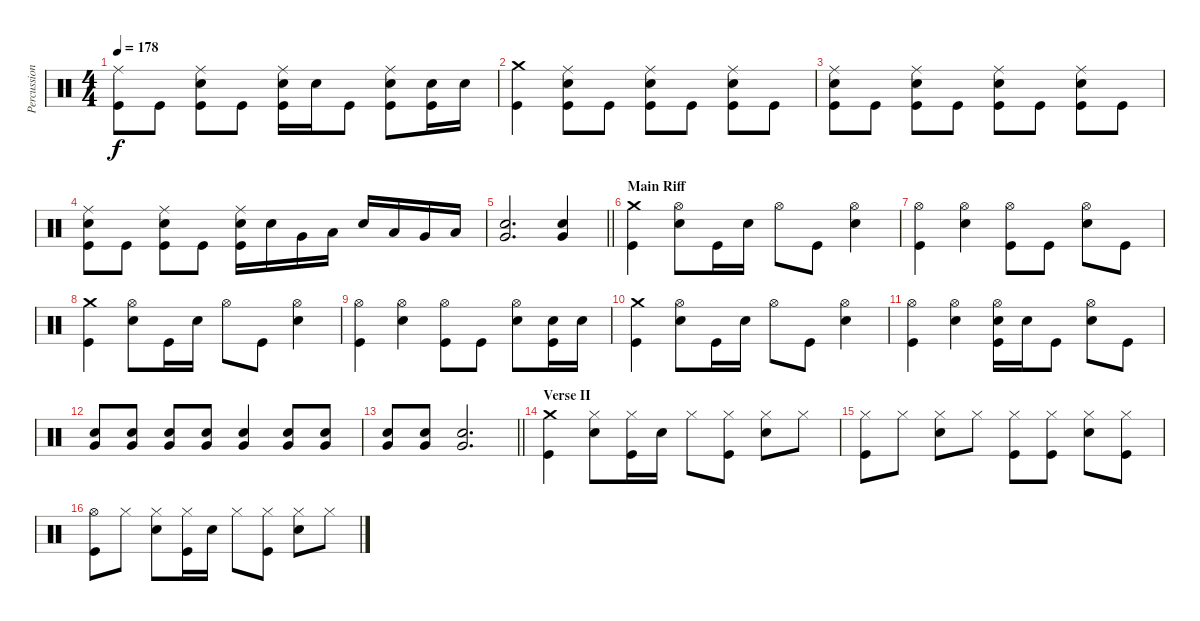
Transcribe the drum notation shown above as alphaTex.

\track ("Percussion" "Percussion") {instrument percussion}
\staff {score}
\articulation defaults
\ts (4 4)
\tempo 178
\clef neutral
\ks c
("Ride (middle)" "Kick (hit)").8{dy f} "Kick (hit)".8 ("Ride (middle)" "Electric Snare (hit)" "Kick (hit)").8 "Kick (hit)".8 ("Ride (middle)" "Electric Snare (hit)" "Kick (hit)").16 "Electric Snare (hit)".16 "Kick (hit)".8 ("Ride (middle)" "Electric Snare (hit)" "Kick (hit)").8 ("Electric Snare (hit)" "Kick (hit)").16 "Electric Snare (hit)".16 |
("Crash medium (hit)" "Kick (hit)").4 ("Ride (middle)" "Electric Snare (hit)" "Kick (hit)").8 "Kick (hit)".8 ("Ride (middle)" "Electric Snare (hit)" "Kick (hit)").8 "Kick (hit)".8 ("Ride (middle)" "Electric Snare (hit)" "Kick (hit)").8 "Kick (hit)".8 |
("Ride (middle)" "Electric Snare (hit)" "Kick (hit)").8 "Kick (hit)".8 ("Ride (middle)" "Electric Snare (hit)" "Kick (hit)").8 "Kick (hit)".8 ("Ride (middle)" "Electric Snare (hit)" "Kick (hit)").8 "Kick (hit)".8 ("Ride (middle)" "Electric Snare (hit)" "Kick (hit)").8 "Kick (hit)".8 |
("Ride (middle)" "Electric Snare (hit)" "Kick (hit)").8 "Kick (hit)".8 ("Ride (middle)" "Electric Snare (hit)" "Kick (hit)").8 "Kick (hit)".8 ("Ride (middle)" "Electric Snare (hit)" "Kick (hit)").16 "Electric Snare (hit)".16 "Very Low Tom (hit)".16 "Low Floor Tom (hit)".16 "Electric Snare (hit)".16 "Low Tom (hit)".16 "Very Low Tom (hit)".16 "Low Floor Tom (hit)".16 |
\barLineRight lightlight
("Electric Snare (hit)" "Very Low Tom (hit)").2{d} ("Electric Snare (hit)" "Very Low Tom (hit)").4 |
\section ("" "Main Riff")
("Crash medium (hit)" "Kick (hit)").4 ("Hi-Hat (open)" "Electric Snare (hit)").8 "Kick (hit)".16 "Electric Snare (hit)".16 "Hi-Hat (open)".8 "Kick (hit)".8 ("Hi-Hat (open)" "Electric Snare (hit)").4 |
("Hi-Hat (open)" "Kick (hit)").4 ("Hi-Hat (open)" "Electric Snare (hit)").4 ("Hi-Hat (open)" "Kick (hit)").8 "Kick (hit)".8 ("Hi-Hat (open)" "Electric Snare (hit)").8 "Kick (hit)".8 |
("Crash medium (hit)" "Kick (hit)").4 ("Hi-Hat (open)" "Electric Snare (hit)").8 "Kick (hit)".16 "Electric Snare (hit)".16 "Hi-Hat (open)".8 "Kick (hit)".8 ("Hi-Hat (open)" "Electric Snare (hit)").4 |
("Hi-Hat (open)" "Kick (hit)").4 ("Hi-Hat (open)" "Electric Snare (hit)").4 ("Hi-Hat (open)" "Kick (hit)").8 "Kick (hit)".8 ("Hi-Hat (open)" "Electric Snare (hit)").8 ("Electric Snare (hit)" "Kick (hit)").16 "Electric Snare (hit)".16 |
("Crash medium (hit)" "Kick (hit)").4 ("Hi-Hat (open)" "Electric Snare (hit)").8 "Kick (hit)".16 "Electric Snare (hit)".16 "Hi-Hat (open)".8 "Kick (hit)".8 ("Hi-Hat (open)" "Electric Snare (hit)").4 |
("Hi-Hat (open)" "Kick (hit)").4 ("Hi-Hat (open)" "Electric Snare (hit)").4 ("Hi-Hat (open)" "Electric Snare (hit)" "Kick (hit)").16 "Electric Snare (hit)".16 "Kick (hit)".8 ("Hi-Hat (open)" "Electric Snare (hit)").8 "Kick (hit)".8 |
("Electric Snare (hit)" "Very Low Tom (hit)").8 ("Electric Snare (hit)" "Very Low Tom (hit)").8 ("Electric Snare (hit)" "Very Low Tom (hit)").8 ("Electric Snare (hit)" "Very Low Tom (hit)").8 ("Electric Snare (hit)" "Very Low Tom (hit)").4 ("Electric Snare (hit)" "Very Low Tom (hit)").8 ("Electric Snare (hit)" "Very Low Tom (hit)").8 |
\barLineRight lightlight
("Electric Snare (hit)" "Very Low Tom (hit)").8 ("Electric Snare (hit)" "Very Low Tom (hit)").8 ("Electric Snare (hit)" "Very Low Tom (hit)").2{d} |
\section ("" "Verse II")
("Crash medium (hit)" "Kick (hit)").4 ("Hi-Hat (closed)" "Electric Snare (hit)").8 ("Hi-Hat (closed)" "Kick (hit)").16 "Electric Snare (hit)".16 "Hi-Hat (closed)".8 ("Hi-Hat (closed)" "Kick (hit)").8 ("Hi-Hat (closed)" "Electric Snare (hit)").8 "Hi-Hat (closed)".8 |
("Hi-Hat (closed)" "Kick (hit)").8 "Hi-Hat (closed)".8 ("Hi-Hat (closed)" "Electric Snare (hit)").8 "Hi-Hat (closed)".8 ("Hi-Hat (closed)" "Kick (hit)").8 ("Hi-Hat (closed)" "Kick (hit)").8 ("Hi-Hat (closed)" "Electric Snare (hit)").8 ("Hi-Hat (closed)" "Kick (hit)").8 |
("Hi-Hat (open)" "Kick (hit)").8 "Hi-Hat (closed)".8 ("Hi-Hat (closed)" "Electric Snare (hit)").8 ("Hi-Hat (closed)" "Kick (hit)").16 "Electric Snare (hit)".16 "Hi-Hat (closed)".8 ("Hi-Hat (closed)" "Kick (hit)").8 ("Hi-Hat (closed)" "Electric Snare (hit)").8 "Hi-Hat (closed)".8
